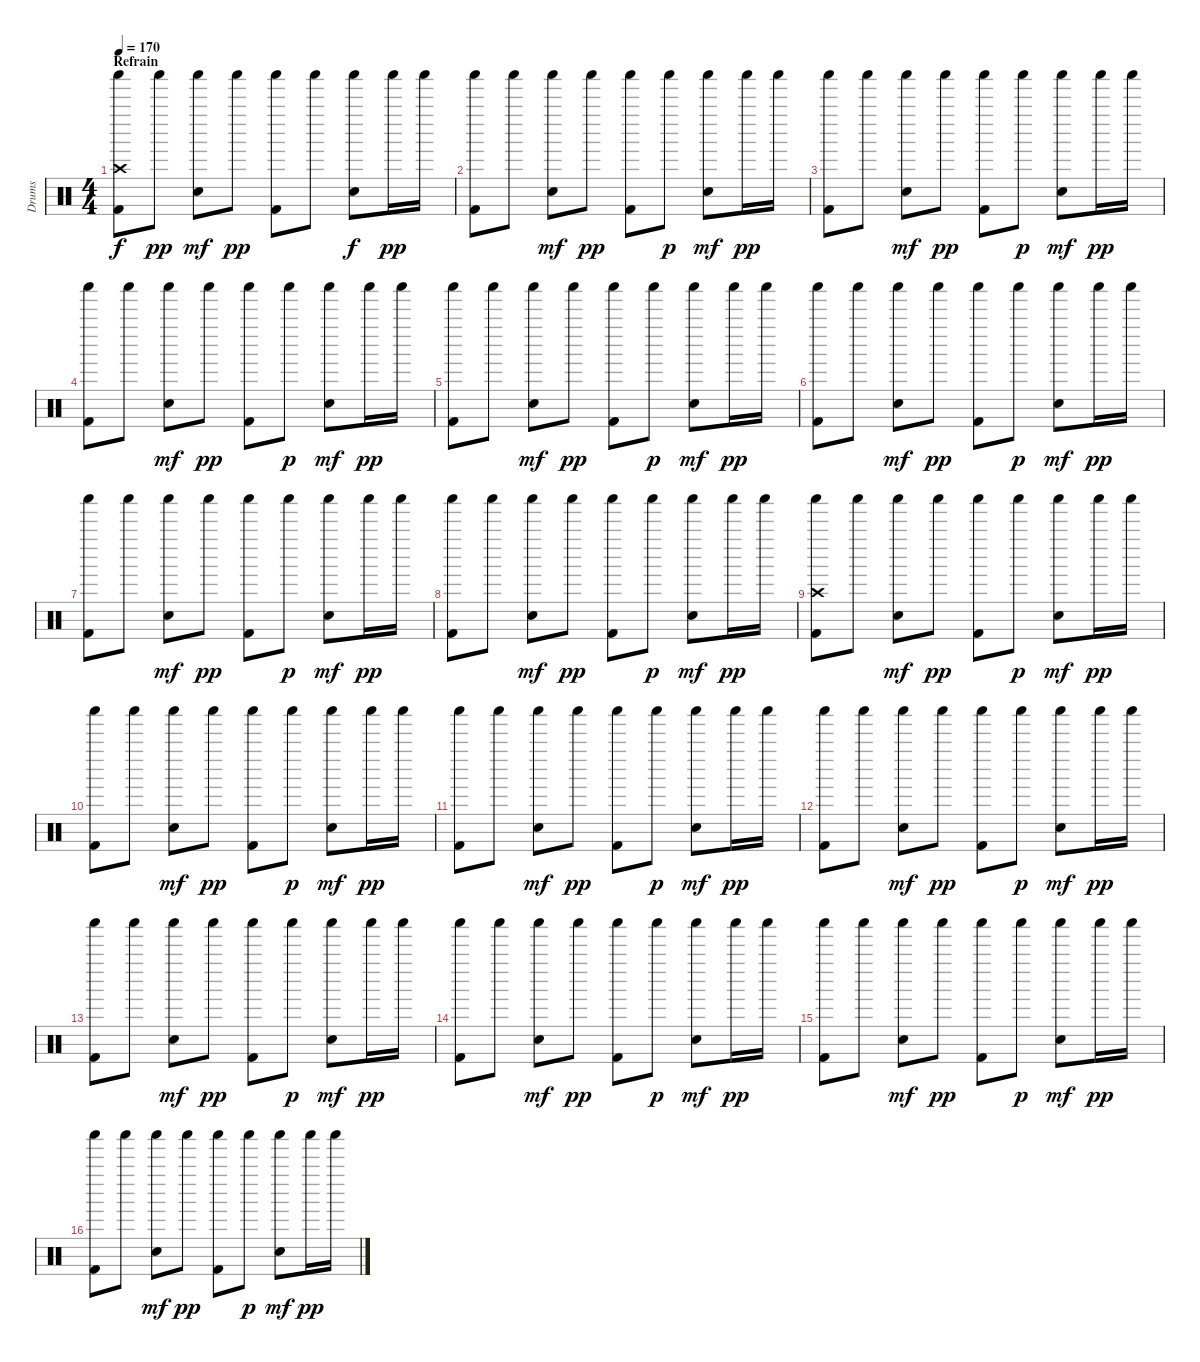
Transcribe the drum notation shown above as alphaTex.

\track ("Drums" "Drums") {instrument percussion}
\staff {score}
\articulation defaults
\ts (4 4)
\section ("" "Refrain")
\tempo 170
\clef neutral
\ks c
("Crash high (hit)" "Kick (hit) 2" "Shaker (hit)").8{dy f} "Shaker (hit)".8{dy pp} ("Snare (hit) 2" "Shaker (hit)").8{dy mf} "Shaker (hit)".8{dy pp} ("Kick (hit) 2" "Shaker (hit)").8 "Shaker (hit)".8 ("Snare (hit) 2" "Shaker (hit)").8{dy f} "Shaker (hit)".16{dy pp} "Shaker (hit)".16 |
("Kick (hit) 2" "Shaker (hit)").8 "Shaker (hit)".8 ("Snare (hit) 2" "Shaker (hit)").8{dy mf} "Shaker (hit)".8{dy pp} ("Kick (hit) 2" "Shaker (hit)").8 "Shaker (hit)".8{dy p} ("Snare (hit) 2" "Shaker (hit)").8{dy mf} "Shaker (hit)".16{dy pp} "Shaker (hit)".16 |
("Kick (hit) 2" "Shaker (hit)").8 "Shaker (hit)".8 ("Snare (hit) 2" "Shaker (hit)").8{dy mf} "Shaker (hit)".8{dy pp} ("Kick (hit) 2" "Shaker (hit)").8 "Shaker (hit)".8{dy p} ("Snare (hit) 2" "Shaker (hit)").8{dy mf} "Shaker (hit)".16{dy pp} "Shaker (hit)".16 |
("Kick (hit) 2" "Shaker (hit)").8 "Shaker (hit)".8 ("Snare (hit) 2" "Shaker (hit)").8{dy mf} "Shaker (hit)".8{dy pp} ("Kick (hit) 2" "Shaker (hit)").8 "Shaker (hit)".8{dy p} ("Snare (hit) 2" "Shaker (hit)").8{dy mf} "Shaker (hit)".16{dy pp} "Shaker (hit)".16 |
("Kick (hit) 2" "Shaker (hit)").8 "Shaker (hit)".8 ("Snare (hit) 2" "Shaker (hit)").8{dy mf} "Shaker (hit)".8{dy pp} ("Kick (hit) 2" "Shaker (hit)").8 "Shaker (hit)".8{dy p} ("Snare (hit) 2" "Shaker (hit)").8{dy mf} "Shaker (hit)".16{dy pp} "Shaker (hit)".16 |
("Kick (hit) 2" "Shaker (hit)").8 "Shaker (hit)".8 ("Snare (hit) 2" "Shaker (hit)").8{dy mf} "Shaker (hit)".8{dy pp} ("Kick (hit) 2" "Shaker (hit)").8 "Shaker (hit)".8{dy p} ("Snare (hit) 2" "Shaker (hit)").8{dy mf} "Shaker (hit)".16{dy pp} "Shaker (hit)".16 |
("Kick (hit) 2" "Shaker (hit)").8 "Shaker (hit)".8 ("Snare (hit) 2" "Shaker (hit)").8{dy mf} "Shaker (hit)".8{dy pp} ("Kick (hit) 2" "Shaker (hit)").8 "Shaker (hit)".8{dy p} ("Snare (hit) 2" "Shaker (hit)").8{dy mf} "Shaker (hit)".16{dy pp} "Shaker (hit)".16 |
("Kick (hit) 2" "Shaker (hit)").8 "Shaker (hit)".8 ("Snare (hit) 2" "Shaker (hit)").8{dy mf} "Shaker (hit)".8{dy pp} ("Kick (hit) 2" "Shaker (hit)").8 "Shaker (hit)".8{dy p} ("Snare (hit) 2" "Shaker (hit)").8{dy mf} "Shaker (hit)".16{dy pp} "Shaker (hit)".16 |
("Crash high (hit)" "Kick (hit) 2" "Shaker (hit)").8 "Shaker (hit)".8 ("Snare (hit) 2" "Shaker (hit)").8{dy mf} "Shaker (hit)".8{dy pp} ("Kick (hit) 2" "Shaker (hit)").8 "Shaker (hit)".8{dy p} ("Snare (hit) 2" "Shaker (hit)").8{dy mf} "Shaker (hit)".16{dy pp} "Shaker (hit)".16 |
("Kick (hit) 2" "Shaker (hit)").8 "Shaker (hit)".8 ("Snare (hit) 2" "Shaker (hit)").8{dy mf} "Shaker (hit)".8{dy pp} ("Kick (hit) 2" "Shaker (hit)").8 "Shaker (hit)".8{dy p} ("Snare (hit) 2" "Shaker (hit)").8{dy mf} "Shaker (hit)".16{dy pp} "Shaker (hit)".16 |
("Kick (hit) 2" "Shaker (hit)").8 "Shaker (hit)".8 ("Snare (hit) 2" "Shaker (hit)").8{dy mf} "Shaker (hit)".8{dy pp} ("Kick (hit) 2" "Shaker (hit)").8 "Shaker (hit)".8{dy p} ("Snare (hit) 2" "Shaker (hit)").8{dy mf} "Shaker (hit)".16{dy pp} "Shaker (hit)".16 |
("Kick (hit) 2" "Shaker (hit)").8 "Shaker (hit)".8 ("Snare (hit) 2" "Shaker (hit)").8{dy mf} "Shaker (hit)".8{dy pp} ("Kick (hit) 2" "Shaker (hit)").8 "Shaker (hit)".8{dy p} ("Snare (hit) 2" "Shaker (hit)").8{dy mf} "Shaker (hit)".16{dy pp} "Shaker (hit)".16 |
("Kick (hit) 2" "Shaker (hit)").8 "Shaker (hit)".8 ("Snare (hit) 2" "Shaker (hit)").8{dy mf} "Shaker (hit)".8{dy pp} ("Kick (hit) 2" "Shaker (hit)").8 "Shaker (hit)".8{dy p} ("Snare (hit) 2" "Shaker (hit)").8{dy mf} "Shaker (hit)".16{dy pp} "Shaker (hit)".16 |
("Kick (hit) 2" "Shaker (hit)").8 "Shaker (hit)".8 ("Snare (hit) 2" "Shaker (hit)").8{dy mf} "Shaker (hit)".8{dy pp} ("Kick (hit) 2" "Shaker (hit)").8 "Shaker (hit)".8{dy p} ("Snare (hit) 2" "Shaker (hit)").8{dy mf} "Shaker (hit)".16{dy pp} "Shaker (hit)".16 |
("Kick (hit) 2" "Shaker (hit)").8 "Shaker (hit)".8 ("Snare (hit) 2" "Shaker (hit)").8{dy mf} "Shaker (hit)".8{dy pp} ("Kick (hit) 2" "Shaker (hit)").8 "Shaker (hit)".8{dy p} ("Snare (hit) 2" "Shaker (hit)").8{dy mf} "Shaker (hit)".16{dy pp} "Shaker (hit)".16 |
("Kick (hit) 2" "Shaker (hit)").8 "Shaker (hit)".8 ("Snare (hit) 2" "Shaker (hit)").8{dy mf} "Shaker (hit)".8{dy pp} ("Kick (hit) 2" "Shaker (hit)").8 "Shaker (hit)".8{dy p} ("Snare (hit) 2" "Shaker (hit)").8{dy mf} "Shaker (hit)".16{dy pp} "Shaker (hit)".16
